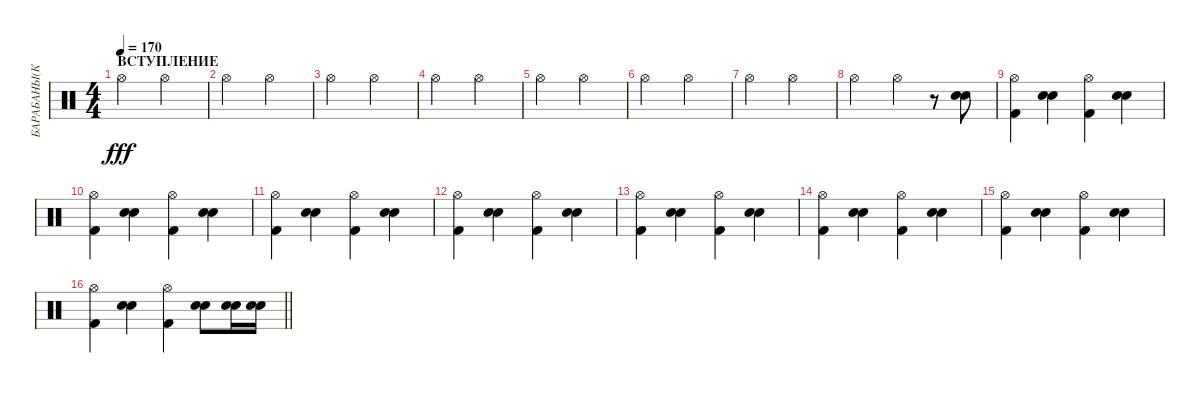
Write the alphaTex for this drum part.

\track ("БАРАБАНЫ(КАРДАН)" "БАРАБАНЫ(К") {instrument percussion}
\staff {score}
\articulation defaults
\ts (4 4)
\section ("" "ВСТУПЛЕНИЕ")
\tempo 170
\clef neutral
\ks c "Hi-Hat (open)".2{dy fff} "Hi-Hat (open)".2
|
"Hi-Hat (open)".2 "Hi-Hat (open)".2 |
"Hi-Hat (open)".2 "Hi-Hat (open)".2 |
"Hi-Hat (open)".2 "Hi-Hat (open)".2 |
"Hi-Hat (open)".2 "Hi-Hat (open)".2 |
"Hi-Hat (open)".2 "Hi-Hat (open)".2 |
"Hi-Hat (open)".2 "Hi-Hat (open)".2 |
"Hi-Hat (open)".2 "Hi-Hat (open)".4 r.8 ("Electric Snare (hit)" "Snare (hit) 2").8 |
("Kick (hit) 2" "Hi-Hat (open)").4 ("Snare (hit) 2" "Electric Snare (hit)").4 ("Kick (hit) 2" "Hi-Hat (open)").4 ("Electric Snare (hit)" "Snare (hit) 2").4 |
("Kick (hit) 2" "Hi-Hat (open)").4 ("Snare (hit) 2" "Electric Snare (hit)").4 ("Kick (hit) 2" "Hi-Hat (open)").4 ("Electric Snare (hit)" "Snare (hit) 2").4 |
("Kick (hit) 2" "Hi-Hat (open)").4 ("Snare (hit) 2" "Electric Snare (hit)").4 ("Kick (hit) 2" "Hi-Hat (open)").4 ("Electric Snare (hit)" "Snare (hit) 2").4 |
("Kick (hit) 2" "Hi-Hat (open)").4 ("Snare (hit) 2" "Electric Snare (hit)").4 ("Kick (hit) 2" "Hi-Hat (open)").4 ("Electric Snare (hit)" "Snare (hit) 2").4 |
("Kick (hit) 2" "Hi-Hat (open)").4 ("Snare (hit) 2" "Electric Snare (hit)").4 ("Kick (hit) 2" "Hi-Hat (open)").4 ("Electric Snare (hit)" "Snare (hit) 2").4 |
("Kick (hit) 2" "Hi-Hat (open)").4 ("Snare (hit) 2" "Electric Snare (hit)").4 ("Kick (hit) 2" "Hi-Hat (open)").4 ("Electric Snare (hit)" "Snare (hit) 2").4 |
("Kick (hit) 2" "Hi-Hat (open)").4 ("Snare (hit) 2" "Electric Snare (hit)").4 ("Kick (hit) 2" "Hi-Hat (open)").4 ("Electric Snare (hit)" "Snare (hit) 2").4 |
\barLineRight lightlight
("Kick (hit) 2" "Hi-Hat (open)").4 ("Snare (hit) 2" "Electric Snare (hit)").4 ("Kick (hit) 2" "Hi-Hat (open)").4 ("Electric Snare (hit)" "Snare (hit) 2").8 ("Electric Snare (hit)" "Snare (hit) 2").16 ("Electric Snare (hit)" "Snare (hit) 2").16
